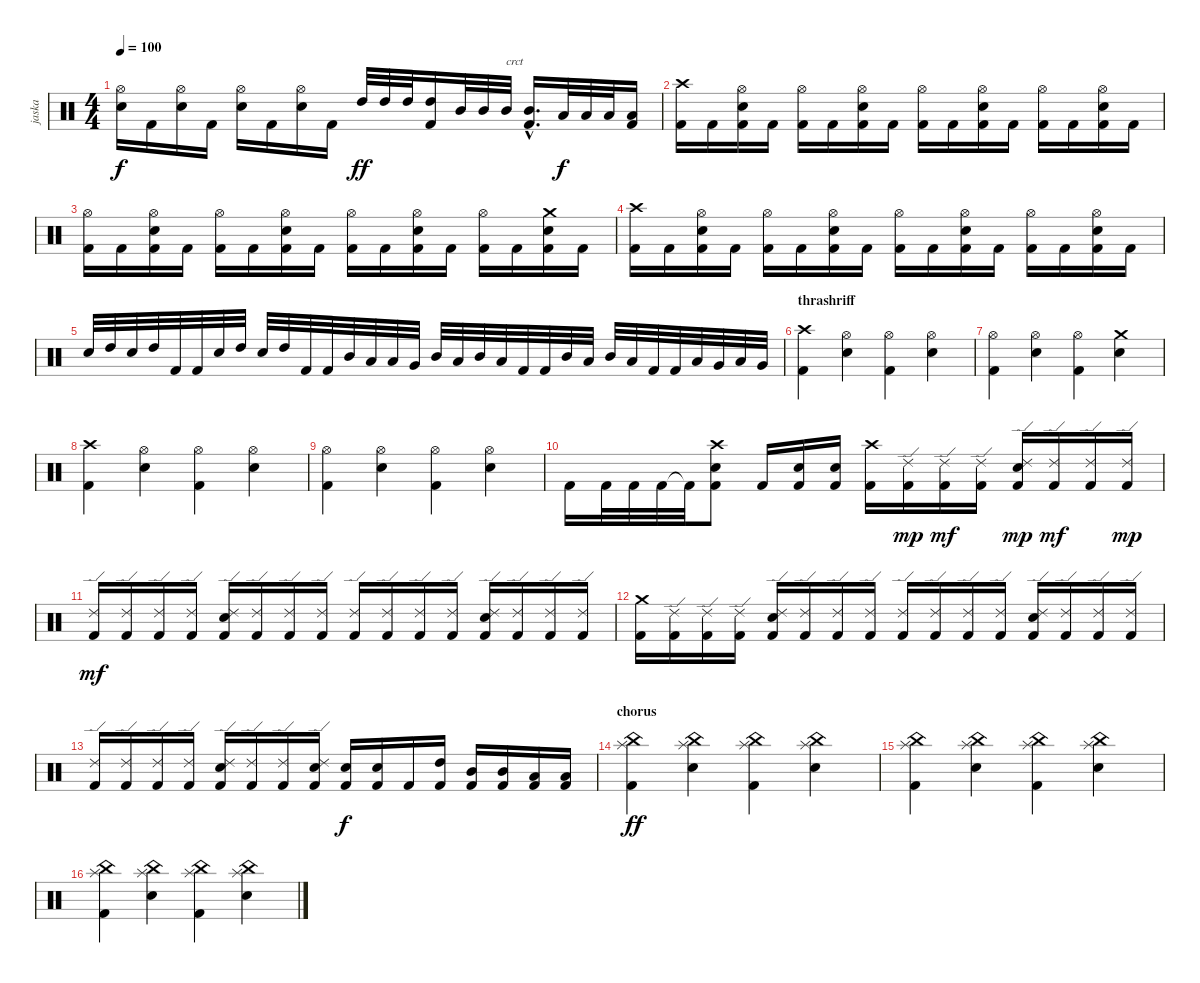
\track ("jaska" "jaska") {instrument percussion}
\staff {score}
\articulation defaults
\ts (4 4)
\tempo 100
\clef neutral
\ks c
("Hi-Hat (open)" "Electric Snare (hit)").16{dy f} "Kick (hit) 2".16 ("Hi-Hat (open)" "Electric Snare (hit)").16 "Kick (hit) 2".16 ("Hi-Hat (open)" "Electric Snare (hit)").16 "Kick (hit) 2".16 ("Hi-Hat (open)" "Electric Snare (hit)").16 "Kick (hit) 2".16 "High Tom (hit)".32{dy ff} "High Tom (hit)".32 "High Tom (hit)".32 ("High Tom (hit)" "Kick (hit) 2").16 "Mid Tom (hit)".32 "Mid Tom (hit)".32 "Mid Tom (hit)".32{txt "crct"} ("Mid Tom (hit)"{hac} "Kick (hit) 2"{hac}).16{d} "Low Tom (hit)".32{dy f} "Low Tom (hit)".32 "Low Tom (hit)".32 ("Low Tom (hit)" "Kick (hit) 2").16 |
("Crash high (hit)" "Kick (hit) 2").16 "Kick (hit) 2".16 ("Hi-Hat (open)" "Electric Snare (hit)" "Kick (hit) 2").16 "Kick (hit) 2".16 ("Hi-Hat (open)" "Kick (hit) 2").16 "Kick (hit) 2".16 ("Hi-Hat (open)" "Electric Snare (hit)" "Kick (hit) 2").16 "Kick (hit) 2".16 ("Hi-Hat (open)" "Kick (hit) 2").16 "Kick (hit) 2".16 ("Hi-Hat (open)" "Electric Snare (hit)" "Kick (hit) 2").16 "Kick (hit) 2".16 ("Hi-Hat (open)" "Kick (hit) 2").16 "Kick (hit) 2".16 ("Hi-Hat (open)" "Electric Snare (hit)" "Kick (hit) 2").16 "Kick (hit) 2".16 |
("Hi-Hat (open)" "Kick (hit) 2").16 "Kick (hit) 2".16 ("Hi-Hat (open)" "Electric Snare (hit)" "Kick (hit) 2").16 "Kick (hit) 2".16 ("Hi-Hat (open)" "Kick (hit) 2").16 "Kick (hit) 2".16 ("Hi-Hat (open)" "Electric Snare (hit)" "Kick (hit) 2").16 "Kick (hit) 2".16 ("Hi-Hat (open)" "Kick (hit) 2").16 "Kick (hit) 2".16 ("Hi-Hat (open)" "Electric Snare (hit)" "Kick (hit) 2").16 "Kick (hit) 2".16 ("Hi-Hat (open)" "Kick (hit) 2").16 "Kick (hit) 2".16 ("Crash medium (hit)" "Electric Snare (hit)" "Kick (hit) 2").16 "Kick (hit) 2".16 |
("Crash high (hit)" "Kick (hit) 2").16 "Kick (hit) 2".16 ("Hi-Hat (open)" "Electric Snare (hit)" "Kick (hit) 2").16 "Kick (hit) 2".16 ("Hi-Hat (open)" "Kick (hit) 2").16 "Kick (hit) 2".16 ("Hi-Hat (open)" "Electric Snare (hit)" "Kick (hit) 2").16 "Kick (hit) 2".16 ("Hi-Hat (open)" "Kick (hit) 2").16 "Kick (hit) 2".16 ("Hi-Hat (open)" "Electric Snare (hit)" "Kick (hit) 2").16 "Kick (hit) 2".16 ("Hi-Hat (open)" "Kick (hit) 2").16 "Kick (hit) 2".16 ("Hi-Hat (open)" "Electric Snare (hit)" "Kick (hit) 2").16 "Kick (hit) 2".16 |
"Electric Snare (hit)".32 "High Tom (hit)".32 "Electric Snare (hit)".32 "High Tom (hit)".32 "Kick (hit) 2".32 "Kick (hit) 2".32 "Electric Snare (hit)".32 "High Tom (hit)".32 "Electric Snare (hit)".32 "High Tom (hit)".32 "Kick (hit) 2".32 "Kick (hit) 2".32 "Mid Tom (hit)".32 "Low Tom (hit)".32 "Low Tom (hit)".32 "Very Low Tom (hit)".32 "Mid Tom (hit)".32 "Low Tom (hit)".32 "Mid Tom (hit)".32 "Low Tom (hit)".32 "Kick (hit) 2".32 "Kick (hit) 2".32 "Mid Tom (hit)".32 "Low Tom (hit)".32 "Mid Tom (hit)".32 "Low Tom (hit)".32 "Kick (hit) 2".32 "Kick (hit) 2".32 "Low Tom (hit)".32 "Very Low Tom (hit)".32 "Low Tom (hit)".32 "Very Low Tom (hit)".32 |
\section ("" "thrashriff")
("Crash high (hit)" "Kick (hit) 2").4 ("Hi-Hat (open)" "Electric Snare (hit)").4 ("Hi-Hat (open)" "Kick (hit) 2").4 ("Hi-Hat (open)" "Electric Snare (hit)").4 |
("Hi-Hat (open)" "Kick (hit) 2").4 ("Hi-Hat (open)" "Electric Snare (hit)").4 ("Hi-Hat (open)" "Kick (hit) 2").4 ("Crash medium (hit)" "Electric Snare (hit)").4 |
("Crash high (hit)" "Kick (hit) 2").4 ("Hi-Hat (open)" "Electric Snare (hit)").4 ("Hi-Hat (open)" "Kick (hit) 2").4 ("Hi-Hat (open)" "Electric Snare (hit)").4 |
("Hi-Hat (open)" "Kick (hit) 2").4 ("Hi-Hat (open)" "Electric Snare (hit)").4 ("Hi-Hat (open)" "Kick (hit) 2").4 ("Hi-Hat (open)" "Electric Snare (hit)").4 |
"Kick (hit) 2".16 "Kick (hit) 2".32 "Kick (hit) 2".32 "Kick (hit) 2".32 "Kick (hit) 2"{t}.32 ("Crash high (hit)" "Electric Snare (hit)" "Kick (hit) 2").8 "Kick (hit) 2".16 ("Electric Snare (hit)" "Kick (hit) 2").16 ("Electric Snare (hit)" "Kick (hit) 2").16 ("Crash high (hit)" "Kick (hit) 2").16 ("Ride (edge) 2" "Kick (hit) 2").16{dy mp} ("Ride (edge) 2" "Kick (hit) 2").16{dy mf} ("Ride (edge) 2" "Kick (hit) 2").16 ("Ride (edge) 2" "Electric Snare (hit)" "Kick (hit) 2").16{dy mp} ("Ride (edge) 2" "Kick (hit) 2").16{dy mf} ("Ride (edge) 2" "Kick (hit) 2").16 ("Ride (edge) 2" "Kick (hit) 2").16{dy mp} |
("Ride (edge) 2" "Kick (hit) 2").16{dy mf} ("Ride (edge) 2" "Kick (hit) 2").16 ("Ride (edge) 2" "Kick (hit) 2").16 ("Ride (edge) 2" "Kick (hit) 2").16 ("Ride (edge) 2" "Electric Snare (hit)" "Kick (hit) 2").16 ("Ride (edge) 2" "Kick (hit) 2").16 ("Ride (edge) 2" "Kick (hit) 2").16 ("Ride (edge) 2" "Kick (hit) 2").16 ("Ride (edge) 2" "Kick (hit) 2").16 ("Ride (edge) 2" "Kick (hit) 2").16 ("Ride (edge) 2" "Kick (hit) 2").16 ("Ride (edge) 2" "Kick (hit) 2").16 ("Ride (edge) 2" "Electric Snare (hit)" "Kick (hit) 2").16 ("Ride (edge) 2" "Kick (hit) 2").16 ("Ride (edge) 2" "Kick (hit) 2").16 ("Ride (edge) 2" "Kick (hit) 2").16 |
("Crash medium (hit)" "Kick (hit) 2").16 ("Ride (edge) 2" "Kick (hit) 2").16 ("Ride (edge) 2" "Kick (hit) 2").16 ("Ride (edge) 2" "Kick (hit) 2").16 ("Ride (edge) 2" "Electric Snare (hit)" "Kick (hit) 2").16 ("Ride (edge) 2" "Kick (hit) 2").16 ("Ride (edge) 2" "Kick (hit) 2").16 ("Ride (edge) 2" "Kick (hit) 2").16 ("Ride (edge) 2" "Kick (hit) 2").16 ("Ride (edge) 2" "Kick (hit) 2").16 ("Ride (edge) 2" "Kick (hit) 2").16 ("Ride (edge) 2" "Kick (hit) 2").16 ("Ride (edge) 2" "Electric Snare (hit)" "Kick (hit) 2").16 ("Ride (edge) 2" "Kick (hit) 2").16 ("Ride (edge) 2" "Kick (hit) 2").16 ("Ride (edge) 2" "Kick (hit) 2").16 |
("Ride (edge) 2" "Kick (hit) 2").16 ("Ride (edge) 2" "Kick (hit) 2").16 ("Ride (edge) 2" "Kick (hit) 2").16 ("Ride (edge) 2" "Kick (hit) 2").16 ("Ride (edge) 2" "Electric Snare (hit)" "Kick (hit) 2").16 ("Ride (edge) 2" "Kick (hit) 2").16 ("Ride (edge) 2" "Kick (hit) 2").16 ("Ride (edge) 2" "Electric Snare (hit)" "Kick (hit) 2").16 ("Electric Snare (hit)" "Kick (hit) 2").16{dy f} ("Electric Snare (hit)" "Kick (hit) 2").16 "Kick (hit) 2".16 ("High Tom (hit)" "Kick (hit) 2").16 ("Mid Tom (hit)" "Kick (hit) 2").16 ("Mid Tom (hit)" "Kick (hit) 2").16 ("Low Tom (hit)" "Kick (hit) 2").16 ("Low Tom (hit)" "Kick (hit) 2").16 |
\section ("" "chorus")
("China (hit)" "Splash (hit)" "Kick (hit) 2").4{dy ff} ("China (hit)" "Splash (hit)" "Electric Snare (hit)").4 ("China (hit)" "Splash (hit)" "Kick (hit) 2").4 ("China (hit)" "Splash (hit)" "Electric Snare (hit)").4 |
("China (hit)" "Splash (hit)" "Kick (hit) 2").4 ("China (hit)" "Splash (hit)" "Electric Snare (hit)").4 ("China (hit)" "Splash (hit)" "Kick (hit) 2").4 ("China (hit)" "Splash (hit)" "Electric Snare (hit)").4 |
("China (hit)" "Splash (hit)" "Kick (hit) 2").4 ("China (hit)" "Splash (hit)" "Electric Snare (hit)").4 ("China (hit)" "Splash (hit)" "Kick (hit) 2").4 ("China (hit)" "Splash (hit)" "Electric Snare (hit)").4
